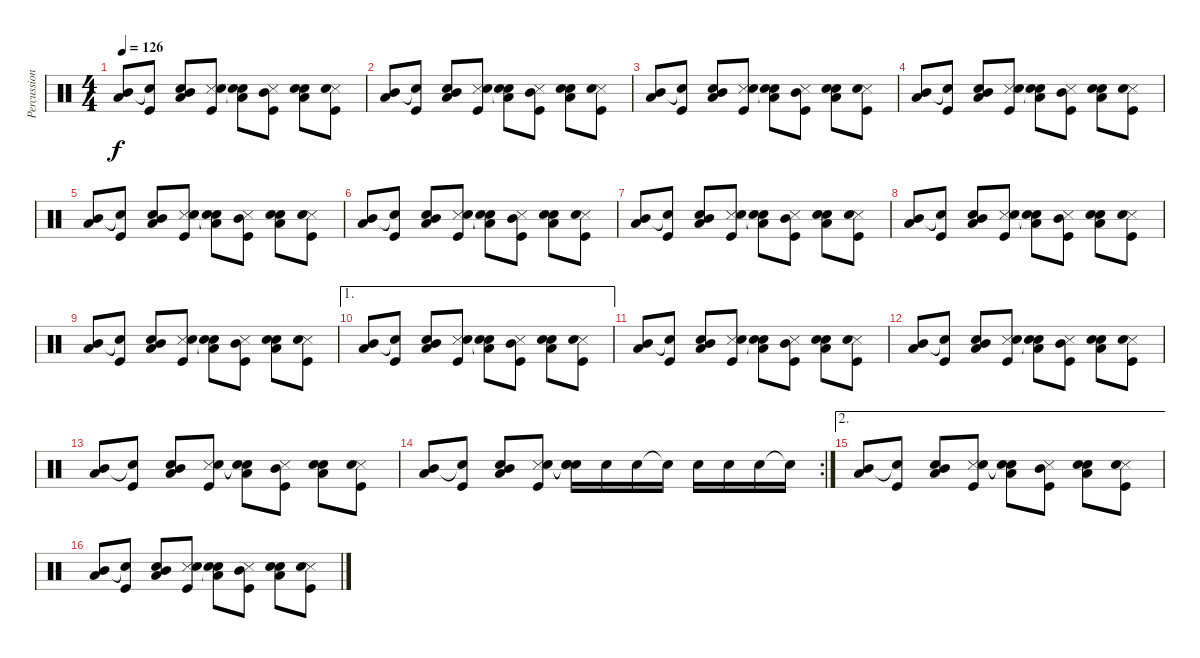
\track ("Percussions" "Percussion") {instrument percussion}
\staff {score}
\articulation defaults
\ts (4 4)
\tempo 126
\clef neutral
\ks c
("Mid Tom (hit)" "Low Floor Tom (hit)").8{dy f} ("Snare (hit)"{t} "Kick (hit)").8 ("Snare (hit) 2" "Mid Tom (hit)" "Low Floor Tom (hit)").8 ("Snare (side stick) 3" "Electric Snare (hit)" "Kick (hit)").8 ("Snare (hit)"{t} "Snare (hit)"{t} "Low Floor Tom (hit)").8 ("Snare (side stick) 3" "Mid Tom (hit)" "Kick (hit)").8 ("Electric Snare (hit)" "Snare (hit) 2" "Low Floor Tom (hit)").8 ("Snare (side stick) 3" "Snare (hit) 2" "Kick (hit)").8 |
("Mid Tom (hit)" "Low Floor Tom (hit)").8 ("Snare (hit)"{t} "Kick (hit)").8 ("Snare (hit) 2" "Mid Tom (hit)" "Low Floor Tom (hit)").8 ("Snare (side stick) 3" "Electric Snare (hit)" "Kick (hit)").8 ("Snare (hit)"{t} "Snare (hit)"{t} "Low Floor Tom (hit)").8 ("Snare (side stick) 3" "Mid Tom (hit)" "Kick (hit)").8 ("Electric Snare (hit)" "Snare (hit) 2" "Low Floor Tom (hit)").8 ("Snare (side stick) 3" "Snare (hit) 2" "Kick (hit)").8 |
("Mid Tom (hit)" "Low Floor Tom (hit)").8 ("Snare (hit)"{t} "Kick (hit)").8 ("Snare (hit) 2" "Mid Tom (hit)" "Low Floor Tom (hit)").8 ("Snare (side stick) 3" "Electric Snare (hit)" "Kick (hit)").8 ("Snare (hit)"{t} "Snare (hit)"{t} "Low Floor Tom (hit)").8 ("Snare (side stick) 3" "Mid Tom (hit)" "Kick (hit)").8 ("Electric Snare (hit)" "Snare (hit) 2" "Low Floor Tom (hit)").8 ("Snare (side stick) 3" "Snare (hit) 2" "Kick (hit)").8 |
("Mid Tom (hit)" "Low Floor Tom (hit)").8 ("Snare (hit)"{t} "Kick (hit)").8 ("Snare (hit) 2" "Mid Tom (hit)" "Low Floor Tom (hit)").8 ("Snare (side stick) 3" "Electric Snare (hit)" "Kick (hit)").8 ("Snare (hit)"{t} "Snare (hit)"{t} "Low Floor Tom (hit)").8 ("Snare (side stick) 3" "Mid Tom (hit)" "Kick (hit)").8 ("Electric Snare (hit)" "Snare (hit) 2" "Low Floor Tom (hit)").8 ("Snare (side stick) 3" "Snare (hit) 2" "Kick (hit)").8 |
("Mid Tom (hit)" "Low Floor Tom (hit)").8 ("Snare (hit)"{t} "Kick (hit)").8 ("Snare (hit) 2" "Mid Tom (hit)" "Low Floor Tom (hit)").8 ("Snare (side stick) 3" "Electric Snare (hit)" "Kick (hit)").8 ("Snare (hit)"{t} "Snare (hit)"{t} "Low Floor Tom (hit)").8 ("Snare (side stick) 3" "Mid Tom (hit)" "Kick (hit)").8 ("Electric Snare (hit)" "Snare (hit) 2" "Low Floor Tom (hit)").8 ("Snare (side stick) 3" "Snare (hit) 2" "Kick (hit)").8 |
("Mid Tom (hit)" "Low Floor Tom (hit)").8 ("Snare (hit)"{t} "Kick (hit)").8 ("Snare (hit) 2" "Mid Tom (hit)" "Low Floor Tom (hit)").8 ("Snare (side stick) 3" "Electric Snare (hit)" "Kick (hit)").8 ("Snare (hit)"{t} "Snare (hit)"{t} "Low Floor Tom (hit)").8 ("Snare (side stick) 3" "Mid Tom (hit)" "Kick (hit)").8 ("Electric Snare (hit)" "Snare (hit) 2" "Low Floor Tom (hit)").8 ("Snare (side stick) 3" "Snare (hit) 2" "Kick (hit)").8 |
("Mid Tom (hit)" "Low Floor Tom (hit)").8 ("Snare (hit)"{t} "Kick (hit)").8 ("Snare (hit) 2" "Mid Tom (hit)" "Low Floor Tom (hit)").8 ("Snare (side stick) 3" "Electric Snare (hit)" "Kick (hit)").8 ("Snare (hit)"{t} "Snare (hit)"{t} "Low Floor Tom (hit)").8 ("Snare (side stick) 3" "Mid Tom (hit)" "Kick (hit)").8 ("Electric Snare (hit)" "Snare (hit) 2" "Low Floor Tom (hit)").8 ("Snare (side stick) 3" "Snare (hit) 2" "Kick (hit)").8 |
("Mid Tom (hit)" "Low Floor Tom (hit)").8 ("Snare (hit)"{t} "Kick (hit)").8 ("Snare (hit) 2" "Mid Tom (hit)" "Low Floor Tom (hit)").8 ("Snare (side stick) 3" "Electric Snare (hit)" "Kick (hit)").8 ("Snare (hit)"{t} "Snare (hit)"{t} "Low Floor Tom (hit)").8 ("Snare (side stick) 3" "Mid Tom (hit)" "Kick (hit)").8 ("Electric Snare (hit)" "Snare (hit) 2" "Low Floor Tom (hit)").8 ("Snare (side stick) 3" "Snare (hit) 2" "Kick (hit)").8 |
("Mid Tom (hit)" "Low Floor Tom (hit)").8 ("Snare (hit)"{t} "Kick (hit)").8 ("Snare (hit) 2" "Mid Tom (hit)" "Low Floor Tom (hit)").8 ("Snare (side stick) 3" "Electric Snare (hit)" "Kick (hit)").8 ("Snare (hit)"{t} "Snare (hit)"{t} "Low Floor Tom (hit)").8 ("Snare (side stick) 3" "Mid Tom (hit)" "Kick (hit)").8 ("Electric Snare (hit)" "Snare (hit) 2" "Low Floor Tom (hit)").8 ("Snare (side stick) 3" "Snare (hit) 2" "Kick (hit)").8 |
\ae 1
("Mid Tom (hit)" "Low Floor Tom (hit)").8 ("Snare (hit)"{t} "Kick (hit)").8 ("Snare (hit) 2" "Mid Tom (hit)" "Low Floor Tom (hit)").8 ("Snare (side stick) 3" "Electric Snare (hit)" "Kick (hit)").8 ("Snare (hit)"{t} "Snare (hit)"{t} "Low Floor Tom (hit)").8 ("Snare (side stick) 3" "Mid Tom (hit)" "Kick (hit)").8 ("Electric Snare (hit)" "Snare (hit) 2" "Low Floor Tom (hit)").8 ("Snare (side stick) 3" "Snare (hit) 2" "Kick (hit)").8 |
("Mid Tom (hit)" "Low Floor Tom (hit)").8 ("Snare (hit)"{t} "Kick (hit)").8 ("Snare (hit) 2" "Mid Tom (hit)" "Low Floor Tom (hit)").8 ("Snare (side stick) 3" "Electric Snare (hit)" "Kick (hit)").8 ("Snare (hit)"{t} "Snare (hit)"{t} "Low Floor Tom (hit)").8 ("Snare (side stick) 3" "Mid Tom (hit)" "Kick (hit)").8 ("Electric Snare (hit)" "Snare (hit) 2" "Low Floor Tom (hit)").8 ("Snare (side stick) 3" "Snare (hit) 2" "Kick (hit)").8 |
("Mid Tom (hit)" "Low Floor Tom (hit)").8 ("Snare (hit)"{t} "Kick (hit)").8 ("Snare (hit) 2" "Mid Tom (hit)" "Low Floor Tom (hit)").8 ("Snare (side stick) 3" "Electric Snare (hit)" "Kick (hit)").8 ("Snare (hit)"{t} "Snare (hit)"{t} "Low Floor Tom (hit)").8 ("Snare (side stick) 3" "Mid Tom (hit)" "Kick (hit)").8 ("Electric Snare (hit)" "Snare (hit) 2" "Low Floor Tom (hit)").8 ("Snare (side stick) 3" "Snare (hit) 2" "Kick (hit)").8 |
("Mid Tom (hit)" "Low Floor Tom (hit)").8 ("Snare (hit)"{t} "Kick (hit)").8 ("Snare (hit) 2" "Mid Tom (hit)" "Low Floor Tom (hit)").8 ("Snare (side stick) 3" "Electric Snare (hit)" "Kick (hit)").8 ("Snare (hit)"{t} "Snare (hit)"{t} "Low Floor Tom (hit)").8 ("Snare (side stick) 3" "Mid Tom (hit)" "Kick (hit)").8 ("Electric Snare (hit)" "Snare (hit) 2" "Low Floor Tom (hit)").8 ("Snare (side stick) 3" "Snare (hit) 2" "Kick (hit)").8 |
\rc 2
("Mid Tom (hit)" "Low Floor Tom (hit)").8 ("Snare (hit)"{t} "Kick (hit)").8 ("Snare (hit) 2" "Mid Tom (hit)" "Low Floor Tom (hit)").8 ("Snare (side stick) 3" "Electric Snare (hit)" "Kick (hit)").8 ("Snare (hit)"{t} "Snare (hit)"{t} "Snare (hit) 2").16 "Snare (hit) 2".16 "Snare (hit) 2".16 "Snare (hit)"{t}.16 "Snare (hit) 2".16 "Snare (hit) 2".16 "Snare (hit) 2".16 "Snare (hit)"{t}.16 |
\ae 2
("Mid Tom (hit)" "Low Floor Tom (hit)").8 ("Snare (hit)"{t} "Kick (hit)").8 ("Snare (hit) 2" "Mid Tom (hit)" "Low Floor Tom (hit)").8 ("Snare (side stick) 3" "Electric Snare (hit)" "Kick (hit)").8 ("Snare (hit)"{t} "Snare (hit)"{t} "Low Floor Tom (hit)").8 ("Snare (side stick) 3" "Mid Tom (hit)" "Kick (hit)").8 ("Electric Snare (hit)" "Snare (hit) 2" "Low Floor Tom (hit)").8 ("Snare (side stick) 3" "Snare (hit) 2" "Kick (hit)").8 |
("Mid Tom (hit)" "Low Floor Tom (hit)").8 ("Snare (hit)"{t} "Kick (hit)").8 ("Snare (hit) 2" "Mid Tom (hit)" "Low Floor Tom (hit)").8 ("Snare (side stick) 3" "Electric Snare (hit)" "Kick (hit)").8 ("Snare (hit)"{t} "Snare (hit)"{t} "Low Floor Tom (hit)").8 ("Snare (side stick) 3" "Mid Tom (hit)" "Kick (hit)").8 ("Electric Snare (hit)" "Snare (hit) 2" "Low Floor Tom (hit)").8 ("Snare (side stick) 3" "Snare (hit) 2" "Kick (hit)").8
